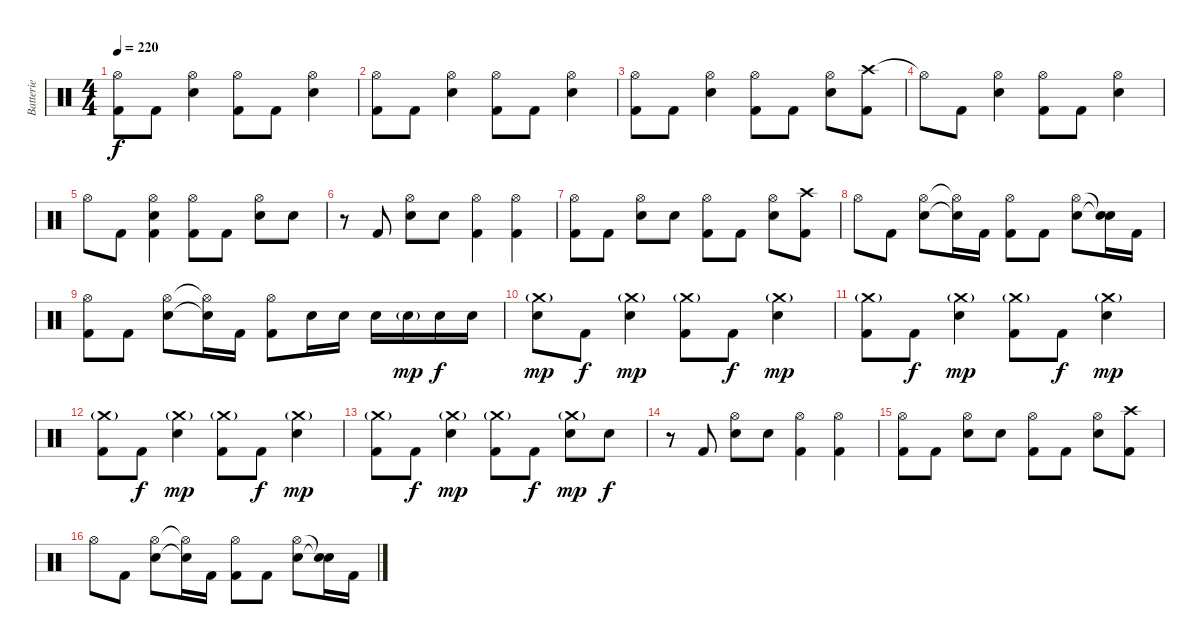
\track ("Batterie" "Batterie") {instrument percussion}
\staff {score}
\articulation defaults
\ts (4 4)
\tempo 220
\clef neutral
\ks c
("Hi-Hat (open)" "Kick (hit) 2").8{dy f} "Kick (hit) 2".8 ("Hi-Hat (open)" "Electric Snare (hit)").4 ("Hi-Hat (open)" "Kick (hit) 2").8 "Kick (hit) 2".8 ("Hi-Hat (open)" "Electric Snare (hit)").4 |
("Hi-Hat (open)" "Kick (hit) 2").8 "Kick (hit) 2".8 ("Hi-Hat (open)" "Electric Snare (hit)").4 ("Hi-Hat (open)" "Kick (hit) 2").8 "Kick (hit) 2".8 ("Hi-Hat (open)" "Electric Snare (hit)").4 |
("Hi-Hat (open)" "Kick (hit) 2").8 "Kick (hit) 2".8 ("Hi-Hat (open)" "Electric Snare (hit)").4 ("Hi-Hat (open)" "Kick (hit) 2").8 "Kick (hit) 2".8 ("Hi-Hat (open)" "Electric Snare (hit)").8 ("Crash high (hit)" "Kick (hit) 2").8 |
"Hi-Hat (open)"{t}.8 "Kick (hit) 2".8 ("Hi-Hat (open)" "Electric Snare (hit)").4 ("Hi-Hat (open)" "Kick (hit) 2").8 "Kick (hit) 2".8 ("Hi-Hat (open)" "Electric Snare (hit)").4 |
"Hi-Hat (open)".8 "Kick (hit) 2".8 ("Hi-Hat (open)" "Electric Snare (hit)" "Kick (hit) 2").4 ("Hi-Hat (open)" "Kick (hit) 2").8 "Kick (hit) 2".8 ("Hi-Hat (open)" "Electric Snare (hit)").8 "Electric Snare (hit)".8 |
r.8 "Kick (hit) 2".8 ("Hi-Hat (open)" "Electric Snare (hit)").8 "Electric Snare (hit)".8 ("Hi-Hat (open)" "Kick (hit) 2").4 ("Hi-Hat (open)" "Kick (hit) 2").4 |
("Hi-Hat (open)" "Kick (hit) 2").8 "Kick (hit) 2".8 ("Hi-Hat (open)" "Electric Snare (hit)").8 "Electric Snare (hit)".8 ("Hi-Hat (open)" "Kick (hit) 2").8 "Kick (hit) 2".8 ("Hi-Hat (open)" "Electric Snare (hit)").8 ("Crash high (hit)" "Kick (hit) 2").8 |
"Hi-Hat (open)".8 "Kick (hit) 2".8 ("Hi-Hat (open)" "Electric Snare (hit)").8 ("Hi-Hat (open)"{t} "Snare (hit)"{t}).16 "Kick (hit) 2".16 ("Hi-Hat (open)" "Kick (hit) 2").8 "Kick (hit) 2".8 ("Hi-Hat (open)" "Electric Snare (hit)").8 ("Snare (hit)"{t} "Snare (hit)"{t}).16 "Kick (hit) 2".16 |
("Hi-Hat (open)" "Kick (hit) 2").8 "Kick (hit) 2".8 ("Hi-Hat (open)" "Electric Snare (hit)").8 ("Hi-Hat (open)"{t} "Electric Snare (hit)"{t}).16 "Kick (hit) 2".16 ("Hi-Hat (open)" "Kick (hit) 2").8 "Electric Snare (hit)".16 "Electric Snare (hit)".16 "Electric Snare (hit)".16 "Electric Snare (hit)"{g}.16{dy mp} "Electric Snare (hit)".16{dy f} "Electric Snare (hit)".16 |
("Crash medium (hit)"{g} "Electric Snare (hit)").8{dy mp} "Kick (hit) 2".8{dy f} ("Crash medium (hit)"{g} "Electric Snare (hit)").4{dy mp} ("Crash medium (hit)"{g} "Kick (hit) 2").8 "Kick (hit) 2".8{dy f} ("Crash medium (hit)"{g} "Electric Snare (hit)").4{dy mp} |
("Crash medium (hit)"{g} "Kick (hit) 2").8 "Kick (hit) 2".8{dy f} ("Crash medium (hit)"{g} "Electric Snare (hit)").4{dy mp} ("Crash medium (hit)"{g} "Kick (hit) 2").8 "Kick (hit) 2".8{dy f} ("Crash medium (hit)"{g} "Electric Snare (hit)").4{dy mp} |
("Crash medium (hit)"{g} "Kick (hit) 2").8 "Kick (hit) 2".8{dy f} ("Crash medium (hit)"{g} "Electric Snare (hit)").4{dy mp} ("Crash medium (hit)"{g} "Kick (hit) 2").8 "Kick (hit) 2".8{dy f} ("Crash medium (hit)"{g} "Electric Snare (hit)").4{dy mp} |
("Crash medium (hit)"{g} "Kick (hit) 2").8 "Kick (hit) 2".8{dy f} ("Crash medium (hit)"{g} "Electric Snare (hit)").4{dy mp} ("Crash medium (hit)"{g} "Kick (hit) 2").8 "Kick (hit) 2".8{dy f} ("Crash medium (hit)"{g} "Electric Snare (hit)").8{dy mp} "Electric Snare (hit)".8{dy f} |
r.8 "Kick (hit) 2".8 ("Hi-Hat (open)" "Electric Snare (hit)").8 "Electric Snare (hit)".8 ("Hi-Hat (open)" "Kick (hit) 2").4 ("Hi-Hat (open)" "Kick (hit) 2").4 |
("Hi-Hat (open)" "Kick (hit) 2").8 "Kick (hit) 2".8 ("Hi-Hat (open)" "Electric Snare (hit)").8 "Electric Snare (hit)".8 ("Hi-Hat (open)" "Kick (hit) 2").8 "Kick (hit) 2".8 ("Hi-Hat (open)" "Electric Snare (hit)").8 ("Crash high (hit)" "Kick (hit) 2").8 |
"Hi-Hat (open)".8 "Kick (hit) 2".8 ("Hi-Hat (open)" "Electric Snare (hit)").8 ("Hi-Hat (open)"{t} "Snare (hit)"{t}).16 "Kick (hit) 2".16 ("Hi-Hat (open)" "Kick (hit) 2").8 "Kick (hit) 2".8 ("Hi-Hat (open)" "Electric Snare (hit)").8 ("Snare (hit)"{t} "Snare (hit)"{t}).16 "Kick (hit) 2".16
